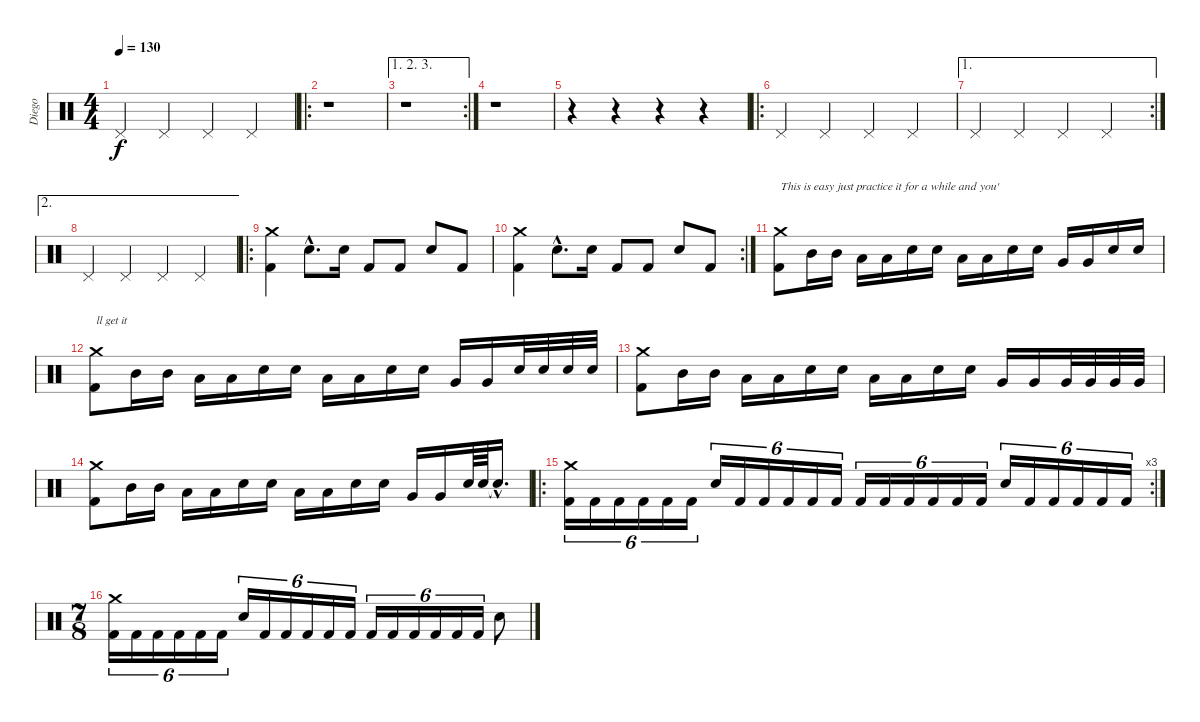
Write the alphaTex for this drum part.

\track ("Diego" "Diego") {instrument percussion}
\staff {score}
\articulation defaults
\ts (4 4)
\tempo 130
\clef neutral
\ks c "Pedal Hi-Hat (hit)".4{dy f} "Pedal Hi-Hat (hit)".4 "Pedal Hi-Hat (hit)".4 "Pedal Hi-Hat (hit)".4
|
\ro
r.1 |
\ae (1 2 3)
\rc 2
r.1 |
r.1 |
r.4 r.4 r.4 r.4 |
\ro "Pedal Hi-Hat (hit)".4 "Pedal Hi-Hat (hit)".4 "Pedal Hi-Hat (hit)".4 "Pedal Hi-Hat (hit)".4
|
\ae 1
\rc 2 "Pedal Hi-Hat (hit)".4 "Pedal Hi-Hat (hit)".4 "Pedal Hi-Hat (hit)".4 "Pedal Hi-Hat (hit)".4
|
\ae 2 "Pedal Hi-Hat (hit)".4 "Pedal Hi-Hat (hit)".4 "Pedal Hi-Hat (hit)".4 "Pedal Hi-Hat (hit)".4
|
\ro
("Crash medium (hit)" "Kick (hit) 2").4 "Snare (hit) 2"{hac}.8{d} "Snare (hit) 2".16 "Kick (hit) 2".8 "Kick (hit) 2".8 "Snare (hit) 2".8 "Kick (hit) 2".8 |
\rc 2
("Crash medium (hit)" "Kick (hit) 2").4 "Snare (hit) 2"{hac}.8{d} "Snare (hit) 2".16 "Kick (hit) 2".8 "Kick (hit) 2".8 "Snare (hit) 2".8 "Kick (hit) 2".8 |
("Crash medium (hit)" "Kick (hit) 2").8{txt "This is easy just practice it for a while and you'"} "Mid Tom (hit)".16 "Mid Tom (hit)".16 "Low Tom (hit)".16 "Low Tom (hit)".16 "Snare (hit) 2".16 "Snare (hit) 2".16 "Low Tom (hit)".16 "Low Tom (hit)".16 "Snare (hit) 2".16 "Snare (hit) 2".16 "Very Low Tom (hit)".16 "Very Low Tom (hit)".16 "Snare (hit) 2".16 "Snare (hit) 2".16 |
("Crash medium (hit)" "Kick (hit) 2").8{txt "ll get it "} "Mid Tom (hit)".16 "Mid Tom (hit)".16 "Low Tom (hit)".16 "Low Tom (hit)".16 "Snare (hit) 2".16 "Snare (hit) 2".16 "Low Tom (hit)".16 "Low Tom (hit)".16 "Snare (hit) 2".16 "Snare (hit) 2".16 "Very Low Tom (hit)".16 "Very Low Tom (hit)".16 "Snare (hit) 2".32 "Snare (hit) 2".32 "Snare (hit) 2".32 "Snare (hit) 2".32 |
("Crash medium (hit)" "Kick (hit) 2").8 "Mid Tom (hit)".16 "Mid Tom (hit)".16 "Low Tom (hit)".16 "Low Tom (hit)".16 "Snare (hit) 2".16 "Snare (hit) 2".16 "Low Tom (hit)".16 "Low Tom (hit)".16 "Snare (hit) 2".16 "Snare (hit) 2".16 "Very Low Tom (hit)".16 "Very Low Tom (hit)".16 "Very Low Tom (hit)".32 "Very Low Tom (hit)".32 "Very Low Tom (hit)".32 "Very Low Tom (hit)".32 |
("Crash medium (hit)" "Kick (hit) 2").8 "Mid Tom (hit)".16 "Mid Tom (hit)".16 "Low Tom (hit)".16 "Low Tom (hit)".16 "Snare (hit) 2".16 "Snare (hit) 2".16 "Low Tom (hit)".16 "Low Tom (hit)".16 "Snare (hit) 2".16 "Snare (hit) 2".16 "Very Low Tom (hit)".16 "Very Low Tom (hit)".16 "Snare (hit) 2".64 "Snare (hit) 2".64 "Snare (hit)"{hac t}.16{d} |
\ro
\rc 3
("Crash medium (hit)" "Kick (hit) 2").16{tu (6 4)} "Kick (hit) 2".16{tu (6 4)} "Kick (hit) 2".16{tu (6 4)} "Kick (hit) 2".16{tu (6 4)} "Kick (hit) 2".16{tu (6 4)} "Kick (hit) 2".16{tu (6 4)} "Snare (hit) 2".16{tu (6 4)} "Kick (hit) 2".16{tu (6 4)} "Kick (hit) 2".16{tu (6 4)} "Kick (hit) 2".16{tu (6 4)} "Kick (hit) 2".16{tu (6 4)} "Kick (hit) 2".16{tu (6 4)} "Kick (hit) 2".16{tu (6 4)} "Kick (hit) 2".16{tu (6 4)} "Kick (hit) 2".16{tu (6 4)} "Kick (hit) 2".16{tu (6 4)} "Kick (hit) 2".16{tu (6 4)} "Kick (hit) 2".16{tu (6 4)} "Snare (hit) 2".16{tu (6 4)} "Kick (hit) 2".16{tu (6 4)} "Kick (hit) 2".16{tu (6 4)} "Kick (hit) 2".16{tu (6 4)} "Kick (hit) 2".16{tu (6 4)} "Kick (hit) 2".16{tu (6 4)} |
\ts (7 8)
("Crash medium (hit)" "Kick (hit) 2").16{tu (6 4)} "Kick (hit) 2".16{tu (6 4)} "Kick (hit) 2".16{tu (6 4)} "Kick (hit) 2".16{tu (6 4)} "Kick (hit) 2".16{tu (6 4)} "Kick (hit) 2".16{tu (6 4)} "Snare (hit) 2".16{tu (6 4)} "Kick (hit) 2".16{tu (6 4)} "Kick (hit) 2".16{tu (6 4)} "Kick (hit) 2".16{tu (6 4)} "Kick (hit) 2".16{tu (6 4)} "Kick (hit) 2".16{tu (6 4)} "Kick (hit) 2".16{tu (6 4)} "Kick (hit) 2".16{tu (6 4)} "Kick (hit) 2".16{tu (6 4)} "Kick (hit) 2".16{tu (6 4)} "Kick (hit) 2".16{tu (6 4)} "Kick (hit) 2".16{tu (6 4)} "Snare (hit) 2".8
